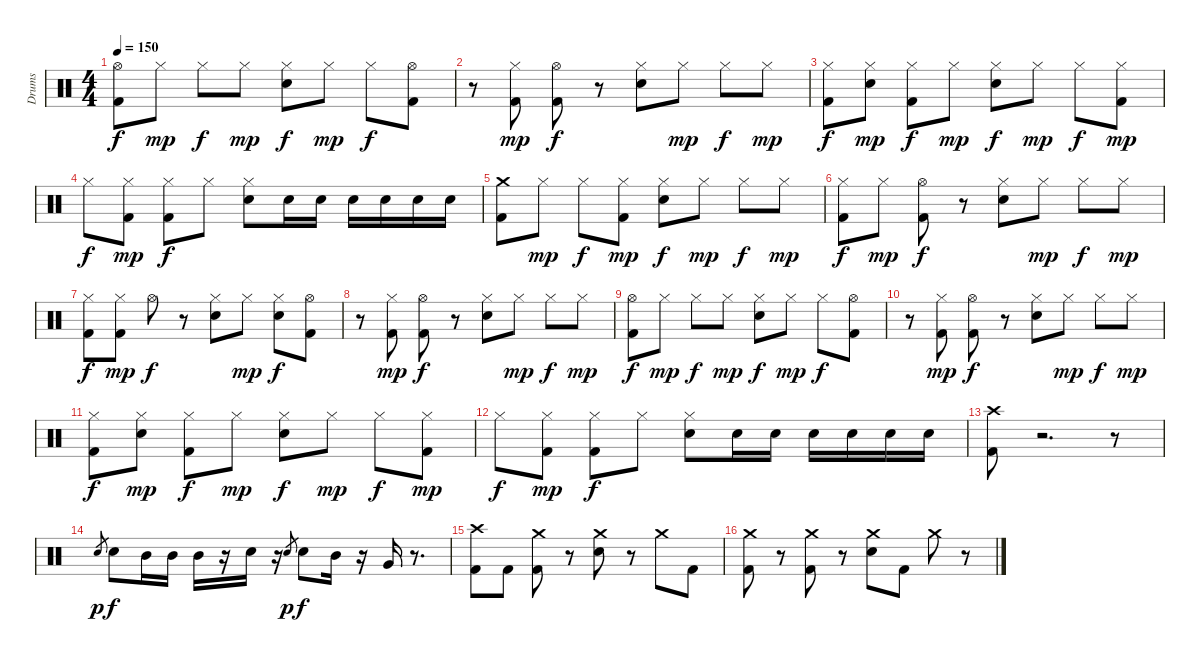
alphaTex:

\track ("Drums" "Drums") {instrument percussion}
\staff {score}
\articulation defaults
\ts (4 4)
\tempo 150
\clef neutral
\ks c
("Hi-Hat (open)" "Kick (hit) 2").8{dy f} "Hi-Hat (closed)".8{dy mp} "Hi-Hat (closed)".8{dy f} "Hi-Hat (closed)".8{dy mp} ("Hi-Hat (closed)" "Electric Snare (hit)").8{dy f} "Hi-Hat (closed)".8{dy mp} "Hi-Hat (closed)".8{dy f} ("Hi-Hat (open)" "Kick (hit) 2").8 |
r.8 ("Hi-Hat (closed)" "Kick (hit) 2").8{dy mp} ("Hi-Hat (open)" "Kick (hit) 2").8{dy f} r.8 ("Hi-Hat (closed)" "Electric Snare (hit)").8 "Hi-Hat (closed)".8{dy mp} "Hi-Hat (closed)".8{dy f} "Hi-Hat (closed)".8{dy mp} |
("Hi-Hat (closed)" "Kick (hit) 2").8{dy f} ("Hi-Hat (closed)" "Electric Snare (hit)").8{dy mp} ("Hi-Hat (closed)" "Kick (hit) 2").8{dy f} "Hi-Hat (closed)".8{dy mp} ("Hi-Hat (closed)" "Electric Snare (hit)").8{dy f} "Hi-Hat (closed)".8{dy mp} "Hi-Hat (closed)".8{dy f} ("Hi-Hat (closed)" "Kick (hit) 2").8{dy mp} |
"Hi-Hat (closed)".8{dy f} ("Hi-Hat (closed)" "Kick (hit) 2").8{dy mp} ("Hi-Hat (closed)" "Kick (hit) 2").8{dy f} "Hi-Hat (closed)".8 ("Hi-Hat (closed)" "Electric Snare (hit)").8 "Electric Snare (hit)".16 "Electric Snare (hit)".16 "Electric Snare (hit)".16 "Electric Snare (hit)".16 "Electric Snare (hit)".16 "Electric Snare (hit)".16 |
("Crash medium (hit)" "Kick (hit) 2").8 "Hi-Hat (closed)".8{dy mp} "Hi-Hat (closed)".8{dy f} ("Hi-Hat (closed)" "Kick (hit) 2").8{dy mp} ("Hi-Hat (closed)" "Electric Snare (hit)").8{dy f} "Hi-Hat (closed)".8{dy mp} "Hi-Hat (closed)".8{dy f} "Hi-Hat (closed)".8{dy mp} |
("Hi-Hat (closed)" "Kick (hit) 2").8{dy f} "Hi-Hat (closed)".8{dy mp} ("Hi-Hat (open)" "Kick (hit) 2").8{dy f} r.8 ("Hi-Hat (closed)" "Electric Snare (hit)").8 "Hi-Hat (closed)".8{dy mp} "Hi-Hat (closed)".8{dy f} "Hi-Hat (closed)".8{dy mp} |
("Hi-Hat (closed)" "Kick (hit) 2").8{dy f} ("Hi-Hat (closed)" "Kick (hit) 2").8{dy mp} "Hi-Hat (open)".8{dy f} r.8 ("Hi-Hat (closed)" "Electric Snare (hit)").8 "Hi-Hat (closed)".8{dy mp} ("Hi-Hat (closed)" "Electric Snare (hit)").8{dy f} ("Hi-Hat (open)" "Kick (hit) 2").8 |
r.8 ("Hi-Hat (closed)" "Kick (hit) 2").8{dy mp} ("Hi-Hat (open)" "Kick (hit) 2").8{dy f} r.8 ("Hi-Hat (closed)" "Electric Snare (hit)").8 "Hi-Hat (closed)".8{dy mp} "Hi-Hat (closed)".8{dy f} "Hi-Hat (closed)".8{dy mp} |
("Hi-Hat (open)" "Kick (hit) 2").8{dy f} "Hi-Hat (closed)".8{dy mp} "Hi-Hat (closed)".8{dy f} "Hi-Hat (closed)".8{dy mp} ("Hi-Hat (closed)" "Electric Snare (hit)").8{dy f} "Hi-Hat (closed)".8{dy mp} "Hi-Hat (closed)".8{dy f} ("Hi-Hat (open)" "Kick (hit) 2").8 |
r.8 ("Hi-Hat (closed)" "Kick (hit) 2").8{dy mp} ("Hi-Hat (open)" "Kick (hit) 2").8{dy f} r.8 ("Hi-Hat (closed)" "Electric Snare (hit)").8 "Hi-Hat (closed)".8{dy mp} "Hi-Hat (closed)".8{dy f} "Hi-Hat (closed)".8{dy mp} |
("Hi-Hat (closed)" "Kick (hit) 2").8{dy f} ("Hi-Hat (closed)" "Electric Snare (hit)").8{dy mp} ("Hi-Hat (closed)" "Kick (hit) 2").8{dy f} "Hi-Hat (closed)".8{dy mp} ("Hi-Hat (closed)" "Electric Snare (hit)").8{dy f} "Hi-Hat (closed)".8{dy mp} "Hi-Hat (closed)".8{dy f} ("Hi-Hat (closed)" "Kick (hit) 2").8{dy mp} |
"Hi-Hat (closed)".8{dy f} ("Hi-Hat (closed)" "Kick (hit) 2").8{dy mp} ("Hi-Hat (closed)" "Kick (hit) 2").8{dy f} "Hi-Hat (closed)".8 ("Hi-Hat (closed)" "Electric Snare (hit)").8 "Electric Snare (hit)".16 "Electric Snare (hit)".16 "Electric Snare (hit)".16 "Electric Snare (hit)".16 "Electric Snare (hit)".16 "Electric Snare (hit)".16 |
("Crash high (hit)" "Kick (hit) 2").8 r.2{d} r.8 |
"Electric Snare (hit)".8{gr dy p} "Electric Snare (hit)".8{dy f} "Mid Tom (hit)".16 "Mid Tom (hit)".16 "Mid Tom (hit)".16 r.16 "Electric Snare (hit)".16 r.16 "Electric Snare (hit)".8{gr dy p} "Electric Snare (hit)".8{dy f} "Mid Tom (hit)".16 r.16 "Very Low Tom (hit)".16 r.8{d} |
("Crash high (hit)" "Kick (hit) 2").8 "Kick (hit) 2".8 ("Crash medium (hit)" "Kick (hit) 2").8 r.8 ("Crash medium (hit)" "Electric Snare (hit)").8 r.8 "Crash medium (hit)".8 "Kick (hit) 2".8 |
("Crash medium (hit)" "Kick (hit) 2").8 r.8 ("Crash medium (hit)" "Kick (hit) 2").8 r.8 ("Crash medium (hit)" "Electric Snare (hit)").8 "Kick (hit) 2".8 "Crash medium (hit)".8 r.8
